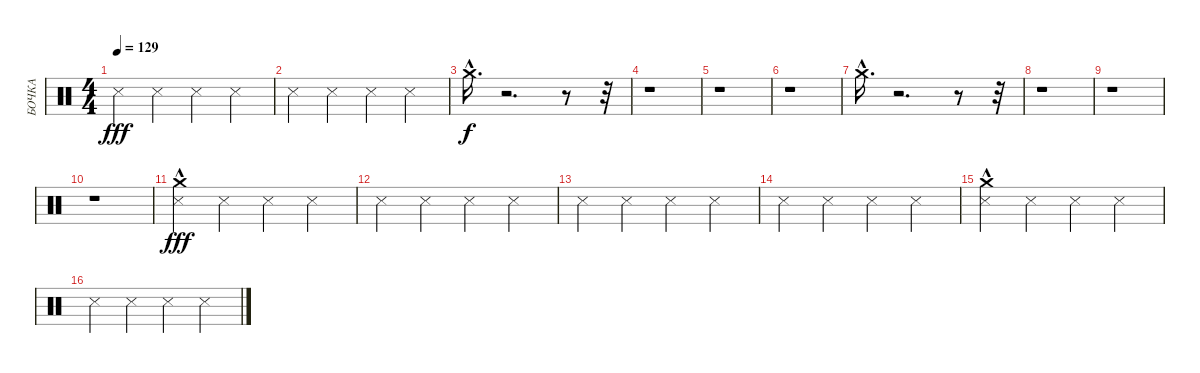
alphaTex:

\track ("БОЧКА" "БОЧКА") {instrument percussion}
\staff {score}
\articulation defaults
\ts (4 4)
\tempo 129
\clef neutral
\ks c "Metronome (hit)".4{dy fff} "Metronome (hit)".4 "Metronome (hit)".4 "Metronome (hit)".4
|
"Metronome (hit)".4 "Metronome (hit)".4 "Metronome (hit)".4 "Metronome (hit)".4 |
"Crash medium (hit)"{hac}.16{d dy f} r.2{d} r.8 r.32 |
r.1 |
r.1 |
r.1 |
"Crash medium (hit)"{hac}.16{d} r.2{d} r.8 r.32 |
r.1 |
r.1 |
r.1 |
("Metronome (hit)" "Crash medium (hit)"{hac}).4{dy fff} "Metronome (hit)".4 "Metronome (hit)".4 "Metronome (hit)".4 |
"Metronome (hit)".4 "Metronome (hit)".4 "Metronome (hit)".4 "Metronome (hit)".4 |
"Metronome (hit)".4 "Metronome (hit)".4 "Metronome (hit)".4 "Metronome (hit)".4 |
"Metronome (hit)".4 "Metronome (hit)".4 "Metronome (hit)".4 "Metronome (hit)".4 |
("Metronome (hit)" "Crash medium (hit)"{hac}).4 "Metronome (hit)".4 "Metronome (hit)".4 "Metronome (hit)".4 |
"Metronome (hit)".4 "Metronome (hit)".4 "Metronome (hit)".4 "Metronome (hit)".4
